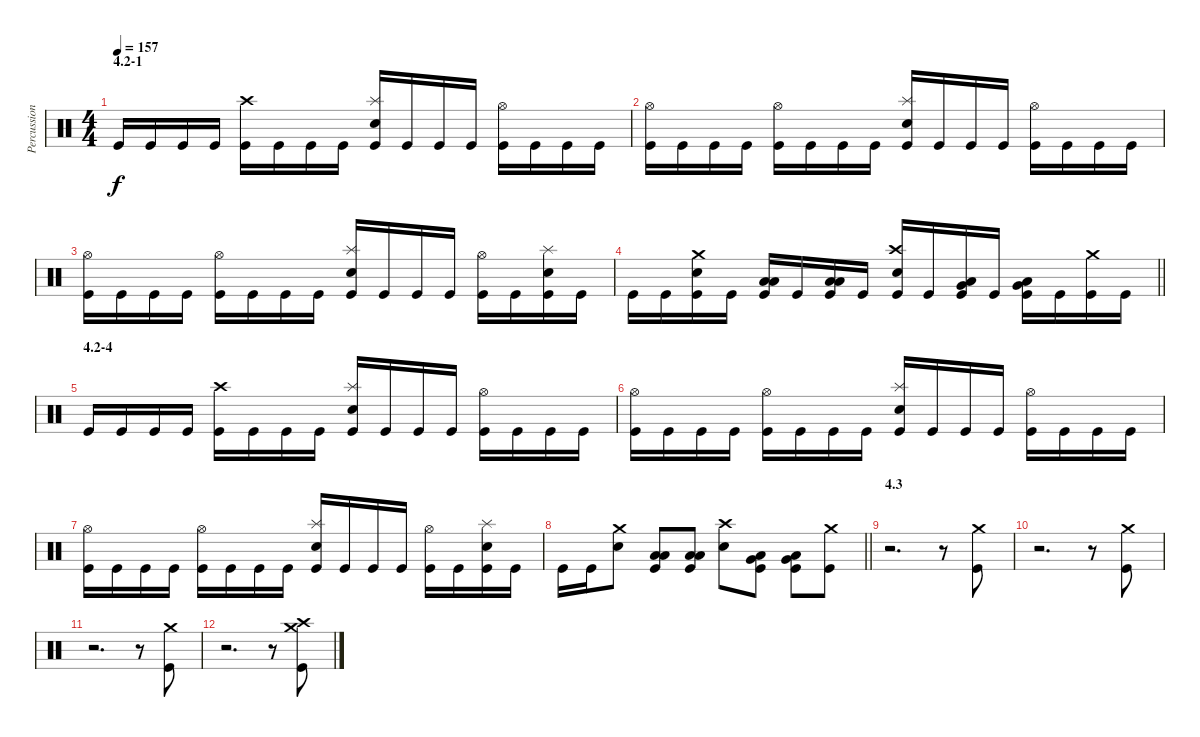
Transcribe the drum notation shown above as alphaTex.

\track ("Percussion" "Percussion") {instrument percussion}
\staff {score}
\articulation defaults
\ts (4 4)
\section ("" "4.2-1")
\tempo 157
\clef neutral
\ks c "Kick (hit)".16{dy f} "Kick (hit)".16 "Kick (hit)".16 "Kick (hit)".16
("Crash high (hit)" "Kick (hit)").16 "Kick (hit)".16 "Kick (hit)".16 "Kick (hit)".16 ("Splash (hit)" "Snare (hit) 2" "Kick (hit)").16 "Kick (hit)".16 "Kick (hit)".16 "Kick (hit)".16 ("Hi-Hat (open)" "Kick (hit)").16 "Kick (hit)".16 "Kick (hit)".16 "Kick (hit)".16 |
("Hi-Hat (open)" "Kick (hit)").16 "Kick (hit)".16 "Kick (hit)".16 "Kick (hit)".16 ("Hi-Hat (open)" "Kick (hit)").16 "Kick (hit)".16 "Kick (hit)".16 "Kick (hit)".16 ("Splash (hit)" "Snare (hit) 2" "Kick (hit)").16 "Kick (hit)".16 "Kick (hit)".16 "Kick (hit)".16 ("Hi-Hat (open)" "Kick (hit)").16 "Kick (hit)".16 "Kick (hit)".16 "Kick (hit)".16 |
("Hi-Hat (open)" "Kick (hit)").16 "Kick (hit)".16 "Kick (hit)".16 "Kick (hit)".16 ("Hi-Hat (open)" "Kick (hit)").16 "Kick (hit)".16 "Kick (hit)".16 "Kick (hit)".16 ("Splash (hit)" "Snare (hit) 2" "Kick (hit)").16 "Kick (hit)".16 "Kick (hit)".16 "Kick (hit)".16 ("Hi-Hat (open)" "Kick (hit)").16 "Kick (hit)".16 ("Splash (hit)" "Snare (hit) 2" "Kick (hit)").16 "Kick (hit)".16 |
\barLineRight lightlight "Kick (hit)".16 "Kick (hit)".16
("Crash medium (hit)" "Snare (hit) 2" "Kick (hit)").16 "Kick (hit)".16 ("Low Tom (hit)" "Low Floor Tom (hit)" "Kick (hit)").16 "Kick (hit)".16 ("Low Tom (hit)" "Low Floor Tom (hit)" "Kick (hit)").16 "Kick (hit)".16 ("Crash high (hit)" "Snare (hit) 2" "Kick (hit)").16 "Kick (hit)".16 ("Very Low Tom (hit)" "Low Floor Tom (hit)" "Kick (hit)").16 "Kick (hit)".16 ("Very Low Tom (hit)" "Low Floor Tom (hit)" "Kick (hit)").16 "Kick (hit)".16 ("Crash medium (hit)" "Kick (hit)").16 "Kick (hit)".16 |
\section ("" "4.2-4")
"Kick (hit)".16 "Kick (hit)".16 "Kick (hit)".16 "Kick (hit)".16 ("Crash high (hit)" "Kick (hit)").16 "Kick (hit)".16 "Kick (hit)".16 "Kick (hit)".16 ("Splash (hit)" "Snare (hit) 2" "Kick (hit)").16 "Kick (hit)".16 "Kick (hit)".16 "Kick (hit)".16 ("Hi-Hat (open)" "Kick (hit)").16 "Kick (hit)".16 "Kick (hit)".16 "Kick (hit)".16 |
("Hi-Hat (open)" "Kick (hit)").16 "Kick (hit)".16 "Kick (hit)".16 "Kick (hit)".16 ("Hi-Hat (open)" "Kick (hit)").16 "Kick (hit)".16 "Kick (hit)".16 "Kick (hit)".16 ("Splash (hit)" "Snare (hit) 2" "Kick (hit)").16 "Kick (hit)".16 "Kick (hit)".16 "Kick (hit)".16 ("Hi-Hat (open)" "Kick (hit)").16 "Kick (hit)".16 "Kick (hit)".16 "Kick (hit)".16 |
("Hi-Hat (open)" "Kick (hit)").16 "Kick (hit)".16 "Kick (hit)".16 "Kick (hit)".16 ("Hi-Hat (open)" "Kick (hit)").16 "Kick (hit)".16 "Kick (hit)".16 "Kick (hit)".16 ("Splash (hit)" "Snare (hit) 2" "Kick (hit)").16 "Kick (hit)".16 "Kick (hit)".16 "Kick (hit)".16 ("Hi-Hat (open)" "Kick (hit)").16 "Kick (hit)".16 ("Splash (hit)" "Snare (hit) 2" "Kick (hit)").16 "Kick (hit)".16 |
\barLineRight lightlight "Kick (hit)".16 "Kick (hit)".16
("Crash medium (hit)" "Snare (hit) 2").8 ("Low Tom (hit)" "Low Floor Tom (hit)" "Kick (hit)").8 ("Low Tom (hit)" "Low Floor Tom (hit)" "Kick (hit)").8 ("Crash high (hit)" "Snare (hit) 2").8 ("Very Low Tom (hit)" "Low Floor Tom (hit)" "Kick (hit)").8 ("Very Low Tom (hit)" "Low Floor Tom (hit)" "Kick (hit)").8 ("Crash medium (hit)" "Kick (hit)").8 |
\section ("" "4.3")
r.2{d} r.8 ("Crash medium (hit)" "Kick (hit)").8 |
r.2{d} r.8 ("Crash medium (hit)" "Kick (hit)").8 |
r.2{d} r.8 ("Crash medium (hit)" "Kick (hit)").8 |
r.2{d} r.8 ("Crash medium (hit)" "Crash high (hit)" "Kick (hit)").8
